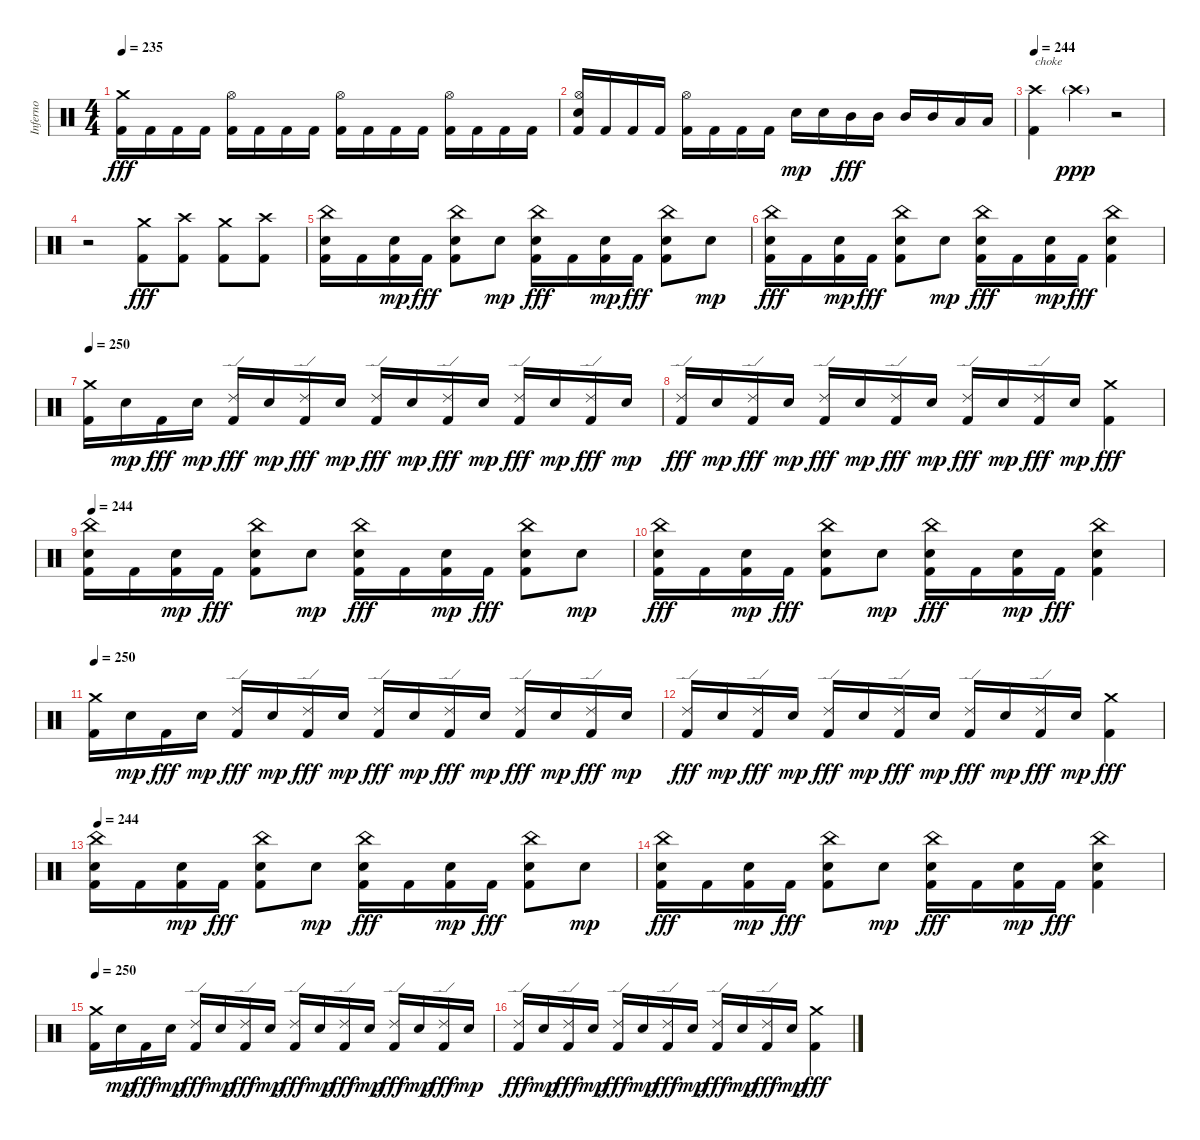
\track ("Inferno" "Inferno") {instrument percussion}
\staff {score}
\articulation defaults
\ts (4 4)
\tempo 235
\clef neutral
\ks c
("Kick (hit) 2" "Crash medium (hit)").16{dy fff} "Kick (hit) 2".16 "Kick (hit) 2".16 "Kick (hit) 2".16 ("Kick (hit) 2" "Hi-Hat (open)").16 "Kick (hit) 2".16 "Kick (hit) 2".16 "Kick (hit) 2".16 ("Kick (hit) 2" "Hi-Hat (open)").16 "Kick (hit) 2".16 "Kick (hit) 2".16 "Kick (hit) 2".16 ("Kick (hit) 2" "Hi-Hat (open)").16 "Kick (hit) 2".16 "Kick (hit) 2".16 "Kick (hit) 2".16 |
("Kick (hit) 2" "Electric Snare (hit)" "Hi-Hat (open)").16 "Kick (hit) 2".16 "Kick (hit) 2".16 "Kick (hit) 2".16 ("Kick (hit) 2" "Hi-Hat (open)").16 "Kick (hit) 2".16 "Kick (hit) 2".16 "Kick (hit) 2".16 "Electric Snare (hit)".16{dy mp} "Electric Snare (hit)".16 "Mid Tom (hit)".16{dy fff} "Mid Tom (hit)".16 "Mid Tom (hit)".16 "Mid Tom (hit)".16 "Low Tom (hit)".16 "Low Tom (hit)".16 |
\tempo 244
("Kick (hit) 2" "Crash high (hit)").4{txt "choke"} "Crash high (hit)"{g}.4{dy ppp} r.2 |
r.2 ("Kick (hit) 2" "Crash medium (hit)").8{dy fff} ("Kick (hit) 2" "Crash high (hit)").8 ("Kick (hit) 2" "Crash medium (hit)").8 ("Kick (hit) 2" "Crash high (hit)").8 |
("Kick (hit) 2" "Electric Snare (hit)" "China (hit)").16 "Kick (hit) 2".16 ("Kick (hit) 2" "Electric Snare (hit)").16{dy mp} "Kick (hit) 2".16{dy fff} ("Kick (hit) 2" "Electric Snare (hit)" "China (hit)").8 "Electric Snare (hit)".8{dy mp} ("Kick (hit) 2" "Electric Snare (hit)" "China (hit)").16{dy fff} "Kick (hit) 2".16 ("Kick (hit) 2" "Electric Snare (hit)").16{dy mp} "Kick (hit) 2".16{dy fff} ("Kick (hit) 2" "Electric Snare (hit)" "China (hit)").8 "Electric Snare (hit)".8{dy mp} |
("Kick (hit) 2" "Electric Snare (hit)" "China (hit)").16{dy fff} "Kick (hit) 2".16 ("Kick (hit) 2" "Electric Snare (hit)").16{dy mp} "Kick (hit) 2".16{dy fff} ("Kick (hit) 2" "Electric Snare (hit)" "China (hit)").8 "Electric Snare (hit)".8{dy mp} ("Kick (hit) 2" "Electric Snare (hit)" "China (hit)").16{dy fff} "Kick (hit) 2".16 ("Kick (hit) 2" "Electric Snare (hit)").16{dy mp} "Kick (hit) 2".16{dy fff} ("Kick (hit) 2" "Electric Snare (hit)" "China (hit)").4 |
\tempo 250
("Kick (hit) 2" "Crash medium (hit)").16 "Electric Snare (hit)".16{dy mp} "Kick (hit) 2".16{dy fff} "Electric Snare (hit)".16{dy mp} ("Kick (hit) 2" "Ride (edge) 2").16{dy fff} "Electric Snare (hit)".16{dy mp} ("Kick (hit) 2" "Ride (edge) 2").16{dy fff} "Electric Snare (hit)".16{dy mp} ("Kick (hit) 2" "Ride (edge) 2").16{dy fff} "Electric Snare (hit)".16{dy mp} ("Kick (hit) 2" "Ride (edge) 2").16{dy fff} "Electric Snare (hit)".16{dy mp} ("Kick (hit) 2" "Ride (edge) 2").16{dy fff} "Electric Snare (hit)".16{dy mp} ("Kick (hit) 2" "Ride (edge) 2").16{dy fff} "Electric Snare (hit)".16{dy mp} |
("Kick (hit) 2" "Ride (edge) 2").16{dy fff} "Electric Snare (hit)".16{dy mp} ("Kick (hit) 2" "Ride (edge) 2").16{dy fff} "Electric Snare (hit)".16{dy mp} ("Kick (hit) 2" "Ride (edge) 2").16{dy fff} "Electric Snare (hit)".16{dy mp} ("Kick (hit) 2" "Ride (edge) 2").16{dy fff} "Electric Snare (hit)".16{dy mp} ("Kick (hit) 2" "Ride (edge) 2").16{dy fff} "Electric Snare (hit)".16{dy mp} ("Kick (hit) 2" "Ride (edge) 2").16{dy fff} "Electric Snare (hit)".16{dy mp} ("Kick (hit) 2" "Crash medium (hit)").4{dy fff} |
\tempo 244
("Kick (hit) 2" "Electric Snare (hit)" "China (hit)").16 "Kick (hit) 2".16 ("Kick (hit) 2" "Electric Snare (hit)").16{dy mp} "Kick (hit) 2".16{dy fff} ("Kick (hit) 2" "Electric Snare (hit)" "China (hit)").8 "Electric Snare (hit)".8{dy mp} ("Kick (hit) 2" "Electric Snare (hit)" "China (hit)").16{dy fff} "Kick (hit) 2".16 ("Kick (hit) 2" "Electric Snare (hit)").16{dy mp} "Kick (hit) 2".16{dy fff} ("Kick (hit) 2" "Electric Snare (hit)" "China (hit)").8 "Electric Snare (hit)".8{dy mp} |
("Kick (hit) 2" "Electric Snare (hit)" "China (hit)").16{dy fff} "Kick (hit) 2".16 ("Kick (hit) 2" "Electric Snare (hit)").16{dy mp} "Kick (hit) 2".16{dy fff} ("Kick (hit) 2" "Electric Snare (hit)" "China (hit)").8 "Electric Snare (hit)".8{dy mp} ("Kick (hit) 2" "Electric Snare (hit)" "China (hit)").16{dy fff} "Kick (hit) 2".16 ("Kick (hit) 2" "Electric Snare (hit)").16{dy mp} "Kick (hit) 2".16{dy fff} ("Kick (hit) 2" "Electric Snare (hit)" "China (hit)").4 |
\tempo 250
("Kick (hit) 2" "Crash medium (hit)").16 "Electric Snare (hit)".16{dy mp} "Kick (hit) 2".16{dy fff} "Electric Snare (hit)".16{dy mp} ("Kick (hit) 2" "Ride (edge) 2").16{dy fff} "Electric Snare (hit)".16{dy mp} ("Kick (hit) 2" "Ride (edge) 2").16{dy fff} "Electric Snare (hit)".16{dy mp} ("Kick (hit) 2" "Ride (edge) 2").16{dy fff} "Electric Snare (hit)".16{dy mp} ("Kick (hit) 2" "Ride (edge) 2").16{dy fff} "Electric Snare (hit)".16{dy mp} ("Kick (hit) 2" "Ride (edge) 2").16{dy fff} "Electric Snare (hit)".16{dy mp} ("Kick (hit) 2" "Ride (edge) 2").16{dy fff} "Electric Snare (hit)".16{dy mp} |
("Kick (hit) 2" "Ride (edge) 2").16{dy fff} "Electric Snare (hit)".16{dy mp} ("Kick (hit) 2" "Ride (edge) 2").16{dy fff} "Electric Snare (hit)".16{dy mp} ("Kick (hit) 2" "Ride (edge) 2").16{dy fff} "Electric Snare (hit)".16{dy mp} ("Kick (hit) 2" "Ride (edge) 2").16{dy fff} "Electric Snare (hit)".16{dy mp} ("Kick (hit) 2" "Ride (edge) 2").16{dy fff} "Electric Snare (hit)".16{dy mp} ("Kick (hit) 2" "Ride (edge) 2").16{dy fff} "Electric Snare (hit)".16{dy mp} ("Kick (hit) 2" "Crash medium (hit)").4{dy fff} |
\tempo 244
("Kick (hit) 2" "Electric Snare (hit)" "China (hit)").16 "Kick (hit) 2".16 ("Kick (hit) 2" "Electric Snare (hit)").16{dy mp} "Kick (hit) 2".16{dy fff} ("Kick (hit) 2" "Electric Snare (hit)" "China (hit)").8 "Electric Snare (hit)".8{dy mp} ("Kick (hit) 2" "Electric Snare (hit)" "China (hit)").16{dy fff} "Kick (hit) 2".16 ("Kick (hit) 2" "Electric Snare (hit)").16{dy mp} "Kick (hit) 2".16{dy fff} ("Kick (hit) 2" "Electric Snare (hit)" "China (hit)").8 "Electric Snare (hit)".8{dy mp} |
("Kick (hit) 2" "Electric Snare (hit)" "China (hit)").16{dy fff} "Kick (hit) 2".16 ("Kick (hit) 2" "Electric Snare (hit)").16{dy mp} "Kick (hit) 2".16{dy fff} ("Kick (hit) 2" "Electric Snare (hit)" "China (hit)").8 "Electric Snare (hit)".8{dy mp} ("Kick (hit) 2" "Electric Snare (hit)" "China (hit)").16{dy fff} "Kick (hit) 2".16 ("Kick (hit) 2" "Electric Snare (hit)").16{dy mp} "Kick (hit) 2".16{dy fff} ("Kick (hit) 2" "Electric Snare (hit)" "China (hit)").4 |
\tempo 250
("Kick (hit) 2" "Crash medium (hit)").16 "Electric Snare (hit)".16{dy mp} "Kick (hit) 2".16{dy fff} "Electric Snare (hit)".16{dy mp} ("Kick (hit) 2" "Ride (edge) 2").16{dy fff} "Electric Snare (hit)".16{dy mp} ("Kick (hit) 2" "Ride (edge) 2").16{dy fff} "Electric Snare (hit)".16{dy mp} ("Kick (hit) 2" "Ride (edge) 2").16{dy fff} "Electric Snare (hit)".16{dy mp} ("Kick (hit) 2" "Ride (edge) 2").16{dy fff} "Electric Snare (hit)".16{dy mp} ("Kick (hit) 2" "Ride (edge) 2").16{dy fff} "Electric Snare (hit)".16{dy mp} ("Kick (hit) 2" "Ride (edge) 2").16{dy fff} "Electric Snare (hit)".16{dy mp} |
("Kick (hit) 2" "Ride (edge) 2").16{dy fff} "Electric Snare (hit)".16{dy mp} ("Kick (hit) 2" "Ride (edge) 2").16{dy fff} "Electric Snare (hit)".16{dy mp} ("Kick (hit) 2" "Ride (edge) 2").16{dy fff} "Electric Snare (hit)".16{dy mp} ("Kick (hit) 2" "Ride (edge) 2").16{dy fff} "Electric Snare (hit)".16{dy mp} ("Kick (hit) 2" "Ride (edge) 2").16{dy fff} "Electric Snare (hit)".16{dy mp} ("Kick (hit) 2" "Ride (edge) 2").16{dy fff} "Electric Snare (hit)".16{dy mp} ("Kick (hit) 2" "Crash medium (hit)").4{dy fff}
